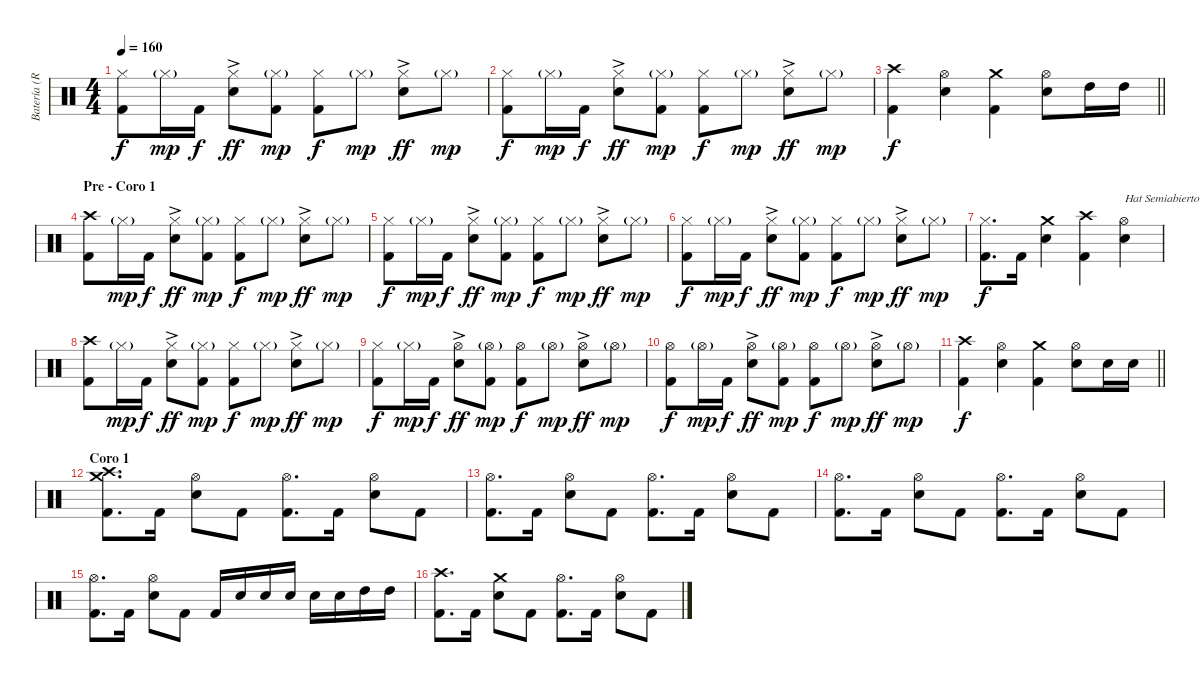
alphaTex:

\track ("Batería (Robert)" "Batería (R") {instrument percussion}
\staff {score}
\articulation defaults
\ts (4 4)
\tempo 160
\clef neutral
\ks c
("Hi-Hat (closed)" "Kick (hit) 2").8{dy f} "Hi-Hat (closed)"{g}.16{dy mp} "Kick (hit) 2".16{dy f} ("Hi-Hat (closed)"{ac} "Electric Snare (hit)").8{dy ff} ("Hi-Hat (closed)"{g} "Kick (hit) 2").8{dy mp} ("Hi-Hat (closed)" "Kick (hit) 2").8{dy f} "Hi-Hat (closed)"{g}.8{dy mp} ("Hi-Hat (closed)"{ac} "Electric Snare (hit)").8{dy ff} "Hi-Hat (closed)"{g}.8{dy mp} |
("Hi-Hat (closed)" "Kick (hit) 2").8{dy f} "Hi-Hat (closed)"{g}.16{dy mp} "Kick (hit) 2".16{dy f} ("Hi-Hat (closed)"{ac} "Electric Snare (hit)").8{dy ff} ("Hi-Hat (closed)"{g} "Kick (hit) 2").8{dy mp} ("Hi-Hat (closed)" "Kick (hit) 2").8{dy f} "Hi-Hat (closed)"{g}.8{dy mp} ("Hi-Hat (closed)"{ac} "Electric Snare (hit)").8{dy ff} "Hi-Hat (closed)"{g}.8{dy mp} |
\barLineRight lightlight
("Kick (hit) 2" "Crash high (hit)").4{dy f} ("Hi-Hat (open)" "Electric Snare (hit)").4 ("Kick (hit) 2" "Crash medium (hit)").4 ("Hi-Hat (open)" "Electric Snare (hit)").8 "High Tom (hit)".16 "High Tom (hit)".16 |
\section ("" "Pre - Coro 1")
("Crash high (hit)" "Kick (hit) 2").8 "Hi-Hat (closed)"{g}.16{dy mp} "Kick (hit) 2".16{dy f} ("Hi-Hat (closed)"{ac} "Electric Snare (hit)").8{dy ff} ("Hi-Hat (closed)"{g} "Kick (hit) 2").8{dy mp} ("Hi-Hat (closed)" "Kick (hit) 2").8{dy f} "Hi-Hat (closed)"{g}.8{dy mp} ("Hi-Hat (closed)"{ac} "Electric Snare (hit)").8{dy ff} "Hi-Hat (closed)"{g}.8{dy mp} |
("Hi-Hat (closed)" "Kick (hit) 2").8{dy f} "Hi-Hat (closed)"{g}.16{dy mp} "Kick (hit) 2".16{dy f} ("Hi-Hat (closed)"{ac} "Electric Snare (hit)").8{dy ff} ("Hi-Hat (closed)"{g} "Kick (hit) 2").8{dy mp} ("Hi-Hat (closed)" "Kick (hit) 2").8{dy f} "Hi-Hat (closed)"{g}.8{dy mp} ("Hi-Hat (closed)"{ac} "Electric Snare (hit)").8{dy ff} "Hi-Hat (closed)"{g}.8{dy mp} |
("Hi-Hat (closed)" "Kick (hit) 2").8{dy f} "Hi-Hat (closed)"{g}.16{dy mp} "Kick (hit) 2".16{dy f} ("Hi-Hat (closed)"{ac} "Electric Snare (hit)").8{dy ff} ("Hi-Hat (closed)"{g} "Kick (hit) 2").8{dy mp} ("Hi-Hat (closed)" "Kick (hit) 2").8{dy f} "Hi-Hat (closed)"{g}.8{dy mp} ("Hi-Hat (closed)"{ac} "Electric Snare (hit)").8{dy ff} "Hi-Hat (closed)"{g}.8{dy mp} |
("Hi-Hat (closed)" "Kick (hit) 2").8{d dy f} "Kick (hit) 2".16 ("Crash medium (hit)" "Electric Snare (hit)").4 ("Crash high (hit)" "Kick (hit) 2").4 ("Hi-Hat (open)" "Electric Snare (hit)").4{txt "Hat Semiabierto en 4"} |
("Crash high (hit)" "Kick (hit) 2").8 "Hi-Hat (closed)"{g}.16{dy mp} "Kick (hit) 2".16{dy f} ("Hi-Hat (closed)"{ac} "Electric Snare (hit)").8{dy ff} ("Hi-Hat (closed)"{g} "Kick (hit) 2").8{dy mp} ("Hi-Hat (closed)" "Kick (hit) 2").8{dy f} "Hi-Hat (closed)"{g}.8{dy mp} ("Hi-Hat (closed)"{ac} "Electric Snare (hit)").8{dy ff} "Hi-Hat (closed)"{g}.8{dy mp} |
("Hi-Hat (closed)" "Kick (hit) 2").8{dy f} "Hi-Hat (closed)"{g}.16{dy mp} "Kick (hit) 2".16{dy f} ("Electric Snare (hit)" "Hi-Hat (open)"{ac}).8{dy ff} ("Hi-Hat (open)"{g} "Kick (hit) 2").8{dy mp} ("Hi-Hat (open)" "Kick (hit) 2").8{dy f} "Hi-Hat (open)"{g}.8{dy mp} ("Hi-Hat (open)"{ac} "Electric Snare (hit)").8{dy ff} "Hi-Hat (open)"{g}.8{dy mp} |
("Hi-Hat (open)" "Kick (hit) 2").8{dy f} "Hi-Hat (open)"{g}.16{dy mp} "Kick (hit) 2".16{dy f} ("Hi-Hat (open)"{ac} "Electric Snare (hit)").8{dy ff} ("Hi-Hat (open)"{g} "Kick (hit) 2").8{dy mp} ("Hi-Hat (open)" "Kick (hit) 2").8{dy f} "Hi-Hat (open)"{g}.8{dy mp} ("Hi-Hat (open)"{ac} "Electric Snare (hit)").8{dy ff} "Hi-Hat (open)"{g}.8{dy mp} |
\barLineRight lightlight
("Kick (hit) 2" "Crash high (hit)").4{dy f} ("Electric Snare (hit)" "Hi-Hat (open)").4 ("Kick (hit) 2" "Crash medium (hit)").4 ("Hi-Hat (open)" "Electric Snare (hit)").8 "Electric Snare (hit)".16 "Electric Snare (hit)".16 |
\section ("" "Coro 1")
("Crash high (hit)" "Crash medium (hit)" "Kick (hit) 2").8{d} "Kick (hit) 2".16 ("Hi-Hat (open)" "Electric Snare (hit)").8 "Kick (hit) 2".8 ("Kick (hit) 2" "Hi-Hat (open)").8{d} "Kick (hit) 2".16 ("Hi-Hat (open)" "Electric Snare (hit)").8 "Kick (hit) 2".8 |
("Hi-Hat (open)" "Kick (hit) 2").8{d} "Kick (hit) 2".16 ("Hi-Hat (open)" "Electric Snare (hit)").8 "Kick (hit) 2".8 ("Kick (hit) 2" "Hi-Hat (open)").8{d} "Kick (hit) 2".16 ("Hi-Hat (open)" "Electric Snare (hit)").8 "Kick (hit) 2".8 |
("Hi-Hat (open)" "Kick (hit) 2").8{d} "Kick (hit) 2".16 ("Hi-Hat (open)" "Electric Snare (hit)").8 "Kick (hit) 2".8 ("Kick (hit) 2" "Hi-Hat (open)").8{d} "Kick (hit) 2".16 ("Hi-Hat (open)" "Electric Snare (hit)").8 "Kick (hit) 2".8 |
("Hi-Hat (open)" "Kick (hit) 2").8{d} "Kick (hit) 2".16 ("Hi-Hat (open)" "Electric Snare (hit)").8 "Kick (hit) 2".8 "Kick (hit) 2".16 "Electric Snare (hit)".16 "Electric Snare (hit)".16 "Electric Snare (hit)".16 "Electric Snare (hit)".16 "Electric Snare (hit)".16 "High Tom (hit)".16 "High Tom (hit)".16 |
("Crash high (hit)" "Kick (hit) 2").8{d} "Kick (hit) 2".16 ("Crash medium (hit)" "Electric Snare (hit)").8 "Kick (hit) 2".8 ("Kick (hit) 2" "Hi-Hat (open)").8{d} "Kick (hit) 2".16 ("Hi-Hat (open)" "Electric Snare (hit)").8 "Kick (hit) 2".8
